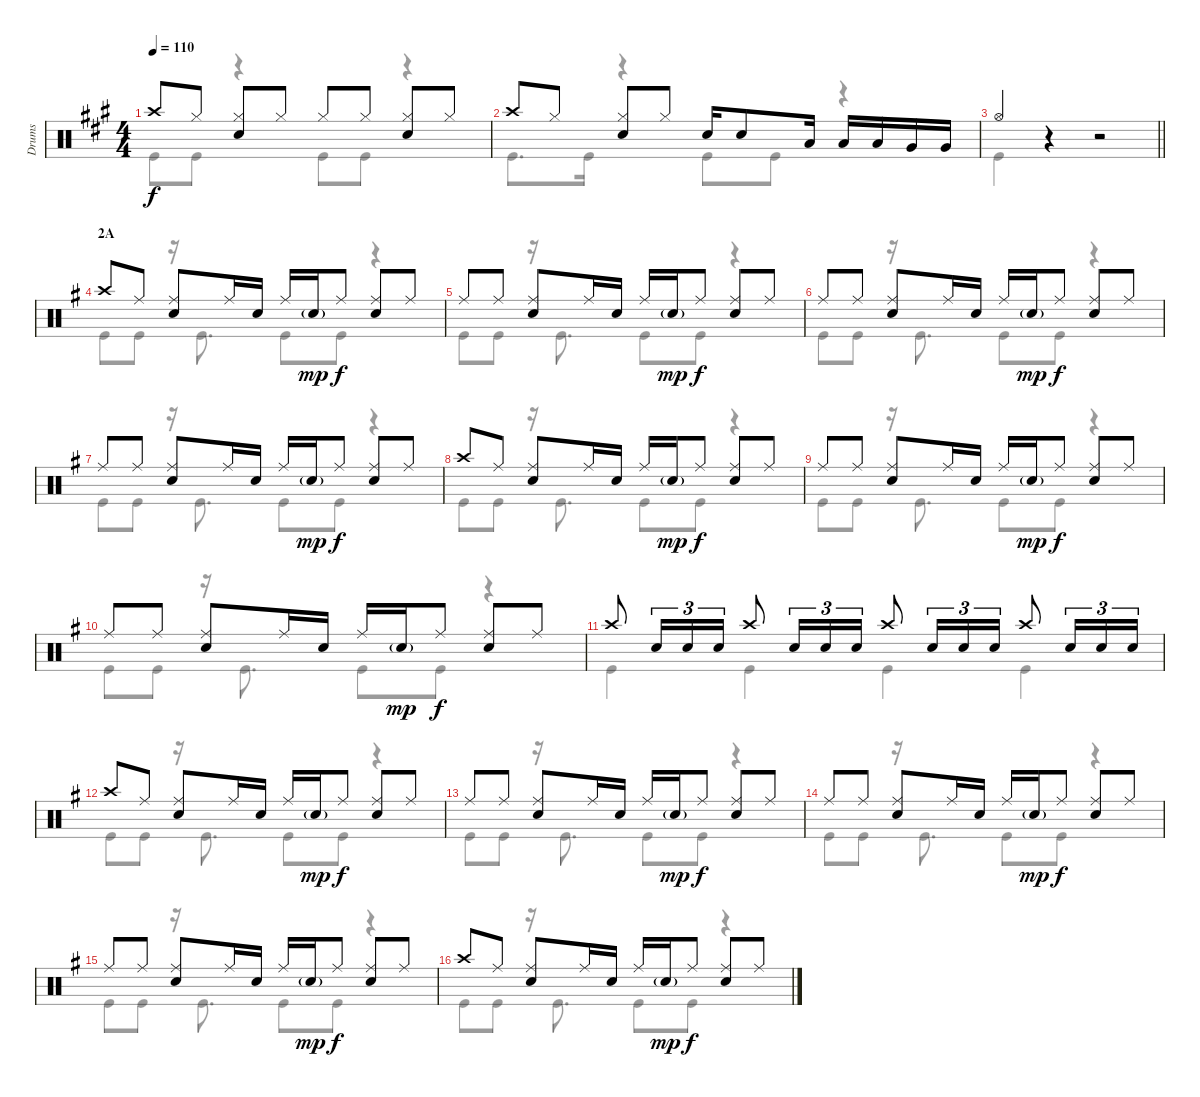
\track ("Drums" "Drums") {instrument percussion}
\staff {score}
\articulation defaults
\voice
\ts (4 4)
\tempo 110
\clef neutral
\ks a "Crash high (hit)".8{dy f} "Hi-Hat (closed)".8
("Hi-Hat (closed)" "Snare (hit) 2").8 "Hi-Hat (closed)".8 "Hi-Hat (closed)".8 "Hi-Hat (closed)".8 ("Hi-Hat (closed)" "Snare (hit) 2").8 "Hi-Hat (closed)".8 |
"Crash high (hit)".8 "Hi-Hat (closed)".8 ("Hi-Hat (closed)" "Snare (hit) 2").8 "Hi-Hat (closed)".8 "Snare (hit) 2".16 "Snare (hit) 2".8 "Low Tom (hit)".16 "Low Tom (hit)".16 "Low Tom (hit)".16 "Very Low Tom (hit)".16 "Very Low Tom (hit)".16 |
\barLineRight lightlight "Hi-Hat (open)".4
r.4 r.2 |
\section ("" "2A")
\ks g "Crash high (hit)".8 "Ride (middle)".8
("Ride (middle)" "Snare (hit) 2").8 "Ride (middle)".16 "Snare (hit) 2".16 "Ride (middle)".16 "Snare (hit) 2"{g}.16{dy mp} "Ride (middle)".8{dy f} ("Ride (middle)" "Snare (hit) 2").8 "Ride (middle)".8 |
"Ride (middle)".8 "Ride (middle)".8 ("Ride (middle)" "Snare (hit) 2").8 "Ride (middle)".16 "Snare (hit) 2".16 "Ride (middle)".16 "Snare (hit) 2"{g}.16{dy mp} "Ride (middle)".8{dy f} ("Ride (middle)" "Snare (hit) 2").8 "Ride (middle)".8 |
"Ride (middle)".8 "Ride (middle)".8 ("Ride (middle)" "Snare (hit) 2").8 "Ride (middle)".16 "Snare (hit) 2".16 "Ride (middle)".16 "Snare (hit) 2"{g}.16{dy mp} "Ride (middle)".8{dy f} ("Ride (middle)" "Snare (hit) 2").8 "Ride (middle)".8 |
"Ride (middle)".8 "Ride (middle)".8 ("Ride (middle)" "Snare (hit) 2").8 "Ride (middle)".16 "Snare (hit) 2".16 "Ride (middle)".16 "Snare (hit) 2"{g}.16{dy mp} "Ride (middle)".8{dy f} ("Ride (middle)" "Snare (hit) 2").8 "Ride (middle)".8 |
"Crash high (hit)".8 "Ride (middle)".8 ("Ride (middle)" "Snare (hit) 2").8 "Ride (middle)".16 "Snare (hit) 2".16 "Ride (middle)".16 "Snare (hit) 2"{g}.16{dy mp} "Ride (middle)".8{dy f} ("Ride (middle)" "Snare (hit) 2").8 "Ride (middle)".8 |
"Ride (middle)".8 "Ride (middle)".8 ("Ride (middle)" "Snare (hit) 2").8 "Ride (middle)".16 "Snare (hit) 2".16 "Ride (middle)".16 "Snare (hit) 2"{g}.16{dy mp} "Ride (middle)".8{dy f} ("Ride (middle)" "Snare (hit) 2").8 "Ride (middle)".8 |
"Ride (middle)".8 "Ride (middle)".8 ("Ride (middle)" "Snare (hit) 2").8 "Ride (middle)".16 "Snare (hit) 2".16 "Ride (middle)".16 "Snare (hit) 2"{g}.16{dy mp} "Ride (middle)".8{dy f} ("Ride (middle)" "Snare (hit) 2").8 "Ride (middle)".8 |
"Crash high (hit)".8 "Snare (hit) 2".16{tu (3 2)} "Snare (hit) 2".16{tu (3 2)} "Snare (hit) 2".16{tu (3 2)} "Crash high (hit)".8 "Snare (hit) 2".16{tu (3 2)} "Snare (hit) 2".16{tu (3 2)} "Snare (hit) 2".16{tu (3 2)} "Crash high (hit)".8 "Snare (hit) 2".16{tu (3 2)} "Snare (hit) 2".16{tu (3 2)} "Snare (hit) 2".16{tu (3 2)} "Crash high (hit)".8 "Snare (hit) 2".16{tu (3 2)} "Snare (hit) 2".16{tu (3 2)} "Snare (hit) 2".16{tu (3 2)} |
"Crash high (hit)".8 "Ride (middle)".8 ("Ride (middle)" "Snare (hit) 2").8 "Ride (middle)".16 "Snare (hit) 2".16 "Ride (middle)".16 "Snare (hit) 2"{g}.16{dy mp} "Ride (middle)".8{dy f} ("Ride (middle)" "Snare (hit) 2").8 "Ride (middle)".8 |
"Ride (middle)".8 "Ride (middle)".8 ("Ride (middle)" "Snare (hit) 2").8 "Ride (middle)".16 "Snare (hit) 2".16 "Ride (middle)".16 "Snare (hit) 2"{g}.16{dy mp} "Ride (middle)".8{dy f} ("Ride (middle)" "Snare (hit) 2").8 "Ride (middle)".8 |
"Ride (middle)".8 "Ride (middle)".8 ("Ride (middle)" "Snare (hit) 2").8 "Ride (middle)".16 "Snare (hit) 2".16 "Ride (middle)".16 "Snare (hit) 2"{g}.16{dy mp} "Ride (middle)".8{dy f} ("Ride (middle)" "Snare (hit) 2").8 "Ride (middle)".8 |
"Ride (middle)".8 "Ride (middle)".8 ("Ride (middle)" "Snare (hit) 2").8 "Ride (middle)".16 "Snare (hit) 2".16 "Ride (middle)".16 "Snare (hit) 2"{g}.16{dy mp} "Ride (middle)".8{dy f} ("Ride (middle)" "Snare (hit) 2").8 "Ride (middle)".8 |
"Crash high (hit)".8 "Ride (middle)".8 ("Ride (middle)" "Snare (hit) 2").8 "Ride (middle)".16 "Snare (hit) 2".16 "Ride (middle)".16 "Snare (hit) 2"{g}.16{dy mp} "Ride (middle)".8{dy f} ("Ride (middle)" "Snare (hit) 2").8 "Ride (middle)".8
\voice
\clef neutral
\ottava regular
\simile none
\ks a "Kick (hit)".8{dy f} "Kick (hit)".8
r.4 "Kick (hit)".8 "Kick (hit)".8 r.4 |
"Kick (hit)".8{d} "Kick (hit)".16 r.4 "Kick (hit)".8 "Kick (hit)".8 r.4 |
\barLineRight lightlight "Kick (hit)".4
r.4 r.2 |
\ks g "Kick (hit)".8 "Kick (hit)".8
r.16 "Kick (hit)".8{d} "Kick (hit)".8 "Kick (hit)".8 r.4 |
"Kick (hit)".8 "Kick (hit)".8 r.16 "Kick (hit)".8{d} "Kick (hit)".8 "Kick (hit)".8 r.4 |
"Kick (hit)".8 "Kick (hit)".8 r.16 "Kick (hit)".8{d} "Kick (hit)".8 "Kick (hit)".8 r.4 |
"Kick (hit)".8 "Kick (hit)".8 r.16 "Kick (hit)".8{d} "Kick (hit)".8 "Kick (hit)".8 r.4 |
"Kick (hit)".8 "Kick (hit)".8 r.16 "Kick (hit)".8{d} "Kick (hit)".8 "Kick (hit)".8 r.4 |
"Kick (hit)".8 "Kick (hit)".8 r.16 "Kick (hit)".8{d} "Kick (hit)".8 "Kick (hit)".8 r.4 |
"Kick (hit)".8 "Kick (hit)".8 r.16 "Kick (hit)".8{d} "Kick (hit)".8 "Kick (hit)".8 r.4 |
"Kick (hit)".4 "Kick (hit)".4 "Kick (hit)".4 "Kick (hit)".4 |
"Kick (hit)".8 "Kick (hit)".8 r.16 "Kick (hit)".8{d} "Kick (hit)".8 "Kick (hit)".8 r.4 |
"Kick (hit)".8 "Kick (hit)".8 r.16 "Kick (hit)".8{d} "Kick (hit)".8 "Kick (hit)".8 r.4 |
"Kick (hit)".8 "Kick (hit)".8 r.16 "Kick (hit)".8{d} "Kick (hit)".8 "Kick (hit)".8 r.4 |
"Kick (hit)".8 "Kick (hit)".8 r.16 "Kick (hit)".8{d} "Kick (hit)".8 "Kick (hit)".8 r.4 |
"Kick (hit)".8 "Kick (hit)".8 r.16 "Kick (hit)".8{d} "Kick (hit)".8 "Kick (hit)".8 r.4
